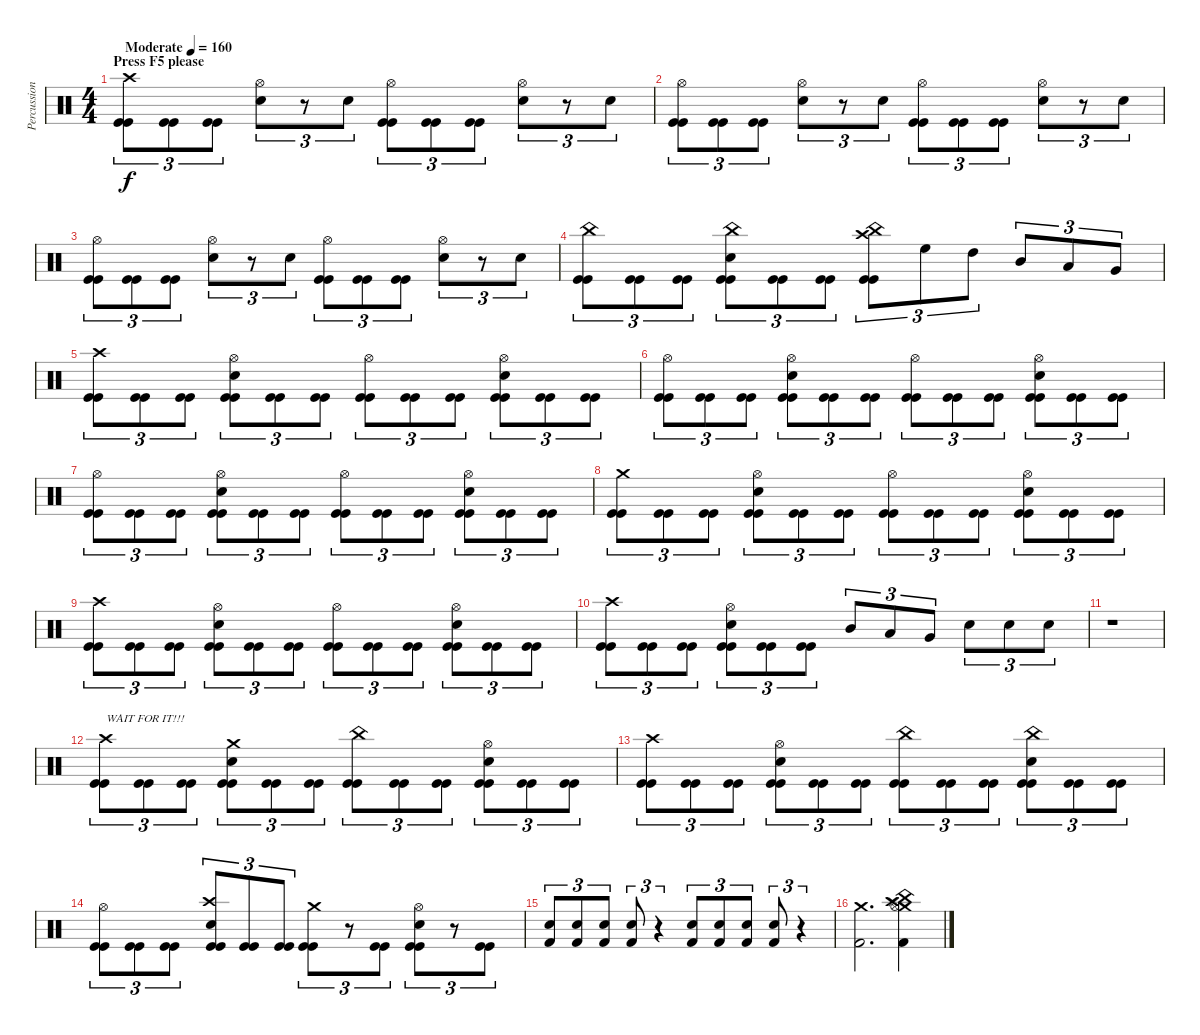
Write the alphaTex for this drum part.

\track ("Percussion" "Percussion") {instrument percussion}
\staff {score}
\articulation defaults
\ts (4 4)
\section ("" "Press F5 please")
\tempo (160 "Moderate")
\clef neutral
\ks c
("Kick (hit)" "Kick (hit)" "Crash high (hit)").8{tu (3 2) dy f volume 0} ("Kick (hit)" "Kick (hit)").8{tu (3 2) volume 13} ("Kick (hit)" "Kick (hit)").8{tu (3 2)} ("Snare (hit) 2" "Hi-Hat (open)").8{tu (3 2)} r.8{tu (3 2)} "Snare (hit) 2".8{tu (3 2)} ("Kick (hit)" "Kick (hit)" "Hi-Hat (open)").8{tu (3 2)} ("Kick (hit)" "Kick (hit)").8{tu (3 2)} ("Kick (hit)" "Kick (hit)").8{tu (3 2)} ("Snare (hit) 2" "Hi-Hat (open)").8{tu (3 2)} r.8{tu (3 2)} "Snare (hit) 2".8{tu (3 2)} |
("Kick (hit)" "Kick (hit)" "Hi-Hat (open)").8{tu (3 2)} ("Kick (hit)" "Kick (hit)").8{tu (3 2)} ("Kick (hit)" "Kick (hit)").8{tu (3 2)} ("Snare (hit) 2" "Hi-Hat (open)").8{tu (3 2)} r.8{tu (3 2)} "Snare (hit) 2".8{tu (3 2)} ("Kick (hit)" "Kick (hit)" "Hi-Hat (open)").8{tu (3 2)} ("Kick (hit)" "Kick (hit)").8{tu (3 2)} ("Kick (hit)" "Kick (hit)").8{tu (3 2)} ("Snare (hit) 2" "Hi-Hat (open)").8{tu (3 2)} r.8{tu (3 2)} "Snare (hit) 2".8{tu (3 2)} |
("Kick (hit)" "Kick (hit)" "Hi-Hat (open)").8{tu (3 2)} ("Kick (hit)" "Kick (hit)").8{tu (3 2)} ("Kick (hit)" "Kick (hit)").8{tu (3 2)} ("Snare (hit) 2" "Hi-Hat (open)").8{tu (3 2)} r.8{tu (3 2)} "Snare (hit) 2".8{tu (3 2)} ("Kick (hit)" "Kick (hit)" "Hi-Hat (open)").8{tu (3 2)} ("Kick (hit)" "Kick (hit)").8{tu (3 2)} ("Kick (hit)" "Kick (hit)").8{tu (3 2)} ("Snare (hit) 2" "Hi-Hat (open)").8{tu (3 2)} r.8{tu (3 2)} "Snare (hit) 2".8{tu (3 2)} |
("Kick (hit)" "Kick (hit)" "China (hit)").8{tu (3 2)} ("Kick (hit)" "Kick (hit)").8{tu (3 2)} ("Kick (hit)" "Kick (hit)").8{tu (3 2)} ("Kick (hit)" "Kick (hit)" "Snare (hit) 2" "China (hit)").8{tu (3 2)} ("Kick (hit)" "Kick (hit)").8{tu (3 2)} ("Kick (hit)" "Kick (hit)").8{tu (3 2)} ("Kick (hit)" "Kick (hit)" "China (hit)" "Crash high (hit)").8{tu (3 2)} "High Floor Tom (hit)".8{tu (3 2)} "High Tom (hit)".8{tu (3 2)} "Mid Tom (hit)".8{tu (3 2)} "Low Tom (hit)".8{tu (3 2)} "Very Low Tom (hit)".8{tu (3 2)} |
("Kick (hit)" "Kick (hit)" "Crash high (hit)").8{tu (3 2)} ("Kick (hit)" "Kick (hit)").8{tu (3 2)} ("Kick (hit)" "Kick (hit)").8{tu (3 2)} ("Kick (hit)" "Kick (hit)" "Snare (hit) 2" "Hi-Hat (open)").8{tu (3 2)} ("Kick (hit)" "Kick (hit)").8{tu (3 2)} ("Kick (hit)" "Kick (hit)").8{tu (3 2)} ("Kick (hit)" "Kick (hit)" "Hi-Hat (open)").8{tu (3 2)} ("Kick (hit)" "Kick (hit)").8{tu (3 2)} ("Kick (hit)" "Kick (hit)").8{tu (3 2)} ("Kick (hit)" "Kick (hit)" "Snare (hit) 2" "Hi-Hat (open)").8{tu (3 2)} ("Kick (hit)" "Kick (hit)").8{tu (3 2)} ("Kick (hit)" "Kick (hit)").8{tu (3 2)} |
("Kick (hit)" "Kick (hit)" "Hi-Hat (open)").8{tu (3 2)} ("Kick (hit)" "Kick (hit)").8{tu (3 2)} ("Kick (hit)" "Kick (hit)").8{tu (3 2)} ("Kick (hit)" "Kick (hit)" "Snare (hit) 2" "Hi-Hat (open)").8{tu (3 2)} ("Kick (hit)" "Kick (hit)").8{tu (3 2)} ("Kick (hit)" "Kick (hit)").8{tu (3 2)} ("Kick (hit)" "Kick (hit)" "Hi-Hat (open)").8{tu (3 2)} ("Kick (hit)" "Kick (hit)").8{tu (3 2)} ("Kick (hit)" "Kick (hit)").8{tu (3 2)} ("Kick (hit)" "Kick (hit)" "Snare (hit) 2" "Hi-Hat (open)").8{tu (3 2)} ("Kick (hit)" "Kick (hit)").8{tu (3 2)} ("Kick (hit)" "Kick (hit)").8{tu (3 2)} |
("Kick (hit)" "Kick (hit)" "Hi-Hat (open)").8{tu (3 2)} ("Kick (hit)" "Kick (hit)").8{tu (3 2)} ("Kick (hit)" "Kick (hit)").8{tu (3 2)} ("Kick (hit)" "Kick (hit)" "Snare (hit) 2" "Hi-Hat (open)").8{tu (3 2)} ("Kick (hit)" "Kick (hit)").8{tu (3 2)} ("Kick (hit)" "Kick (hit)").8{tu (3 2)} ("Kick (hit)" "Kick (hit)" "Hi-Hat (open)").8{tu (3 2)} ("Kick (hit)" "Kick (hit)").8{tu (3 2)} ("Kick (hit)" "Kick (hit)").8{tu (3 2)} ("Kick (hit)" "Kick (hit)" "Snare (hit) 2" "Hi-Hat (open)").8{tu (3 2)} ("Kick (hit)" "Kick (hit)").8{tu (3 2)} ("Kick (hit)" "Kick (hit)").8{tu (3 2)} |
("Kick (hit)" "Kick (hit)" "Crash medium (hit)").8{tu (3 2)} ("Kick (hit)" "Kick (hit)").8{tu (3 2)} ("Kick (hit)" "Kick (hit)").8{tu (3 2)} ("Kick (hit)" "Kick (hit)" "Snare (hit) 2" "Hi-Hat (open)").8{tu (3 2)} ("Kick (hit)" "Kick (hit)").8{tu (3 2)} ("Kick (hit)" "Kick (hit)").8{tu (3 2)} ("Kick (hit)" "Kick (hit)" "Hi-Hat (open)").8{tu (3 2)} ("Kick (hit)" "Kick (hit)").8{tu (3 2)} ("Kick (hit)" "Kick (hit)").8{tu (3 2)} ("Kick (hit)" "Kick (hit)" "Snare (hit) 2" "Hi-Hat (open)").8{tu (3 2)} ("Kick (hit)" "Kick (hit)").8{tu (3 2)} ("Kick (hit)" "Kick (hit)").8{tu (3 2)} |
("Kick (hit)" "Kick (hit)" "Crash high (hit)").8{tu (3 2)} ("Kick (hit)" "Kick (hit)").8{tu (3 2)} ("Kick (hit)" "Kick (hit)").8{tu (3 2)} ("Kick (hit)" "Kick (hit)" "Snare (hit) 2" "Hi-Hat (open)").8{tu (3 2)} ("Kick (hit)" "Kick (hit)").8{tu (3 2)} ("Kick (hit)" "Kick (hit)").8{tu (3 2)} ("Kick (hit)" "Kick (hit)" "Hi-Hat (open)").8{tu (3 2)} ("Kick (hit)" "Kick (hit)").8{tu (3 2)} ("Kick (hit)" "Kick (hit)").8{tu (3 2)} ("Kick (hit)" "Kick (hit)" "Snare (hit) 2" "Hi-Hat (open)").8{tu (3 2)} ("Kick (hit)" "Kick (hit)").8{tu (3 2)} ("Kick (hit)" "Kick (hit)").8{tu (3 2)} |
("Kick (hit)" "Kick (hit)" "Crash high (hit)").8{tu (3 2)} ("Kick (hit)" "Kick (hit)").8{tu (3 2)} ("Kick (hit)" "Kick (hit)").8{tu (3 2)} ("Kick (hit)" "Kick (hit)" "Snare (hit) 2" "Hi-Hat (open)").8{tu (3 2)} ("Kick (hit)" "Kick (hit)").8{tu (3 2)} ("Kick (hit)" "Kick (hit)").8{tu (3 2)} "Mid Tom (hit)".8{tu (3 2)} "Low Tom (hit)".8{tu (3 2)} "Very Low Tom (hit)".8{tu (3 2)} "Snare (hit) 2".8{tu (3 2)} "Snare (hit) 2".8{tu (3 2)} "Snare (hit) 2".8{tu (3 2)} |
r.1 |
("Kick (hit)" "Kick (hit)" "Crash high (hit)").8{tu (3 2) txt "WAIT FOR IT!!!"} ("Kick (hit)" "Kick (hit)").8{tu (3 2)} ("Kick (hit)" "Kick (hit)").8{tu (3 2)} ("Kick (hit)" "Kick (hit)" "Snare (hit) 2" "Crash medium (hit)").8{tu (3 2)} ("Kick (hit)" "Kick (hit)").8{tu (3 2)} ("Kick (hit)" "Kick (hit)").8{tu (3 2)} ("Kick (hit)" "Kick (hit)" "China (hit)").8{tu (3 2)} ("Kick (hit)" "Kick (hit)").8{tu (3 2)} ("Kick (hit)" "Kick (hit)").8{tu (3 2)} ("Kick (hit)" "Kick (hit)" "Snare (hit) 2" "Hi-Hat (open)").8{tu (3 2)} ("Kick (hit)" "Kick (hit)").8{tu (3 2)} ("Kick (hit)" "Kick (hit)").8{tu (3 2)} |
("Kick (hit)" "Kick (hit)" "Crash high (hit)").8{tu (3 2)} ("Kick (hit)" "Kick (hit)").8{tu (3 2)} ("Kick (hit)" "Kick (hit)").8{tu (3 2)} ("Kick (hit)" "Kick (hit)" "Snare (hit) 2" "Hi-Hat (open)").8{tu (3 2)} ("Kick (hit)" "Kick (hit)").8{tu (3 2)} ("Kick (hit)" "Kick (hit)").8{tu (3 2)} ("Kick (hit)" "Kick (hit)" "China (hit)").8{tu (3 2)} ("Kick (hit)" "Kick (hit)").8{tu (3 2)} ("Kick (hit)" "Kick (hit)").8{tu (3 2)} ("Kick (hit)" "Kick (hit)" "Snare (hit) 2" "China (hit)").8{tu (3 2)} ("Kick (hit)" "Kick (hit)").8{tu (3 2)} ("Kick (hit)" "Kick (hit)").8{tu (3 2)} |
("Kick (hit)" "Kick (hit)" "Hi-Hat (open)").8{tu (3 2)} ("Kick (hit)" "Kick (hit)").8{tu (3 2)} ("Kick (hit)" "Kick (hit)").8{tu (3 2)} ("Kick (hit)" "Kick (hit)" "Snare (hit) 2" "Crash high (hit)").8{tu (3 2)} ("Kick (hit)" "Kick (hit)").8{tu (3 2)} ("Kick (hit)" "Kick (hit)").8{tu (3 2)} ("Kick (hit)" "Kick (hit)" "Crash medium (hit)").8{tu (3 2)} r.8{tu (3 2)} ("Kick (hit)" "Kick (hit)").8{tu (3 2)} ("Kick (hit)" "Kick (hit)" "Snare (hit) 2" "Hi-Hat (open)").8{tu (3 2)} r.8{tu (3 2)} ("Kick (hit)" "Kick (hit)").8{tu (3 2)} |
("Kick (hit) 2" "Snare (hit) 2").8{tu (3 2)} ("Kick (hit) 2" "Snare (hit) 2").8{tu (3 2)} ("Kick (hit) 2" "Snare (hit) 2").8{tu (3 2)} ("Kick (hit) 2" "Snare (hit) 2").8{tu (3 2)} r.4{tu (3 2)} ("Kick (hit) 2" "Snare (hit) 2").8{tu (3 2)} ("Kick (hit) 2" "Snare (hit) 2").8{tu (3 2)} ("Kick (hit) 2" "Snare (hit) 2").8{tu (3 2)} ("Kick (hit) 2" "Snare (hit) 2").8{tu (3 2)} r.4{tu (3 2)} |
("Crash medium (hit)" "Kick (hit) 2").2{d} ("Crash high (hit)" "Crash medium (hit)" "Splash (hit)" "China (hit)" "Hi-Hat (open)" "Kick (hit) 2").4
